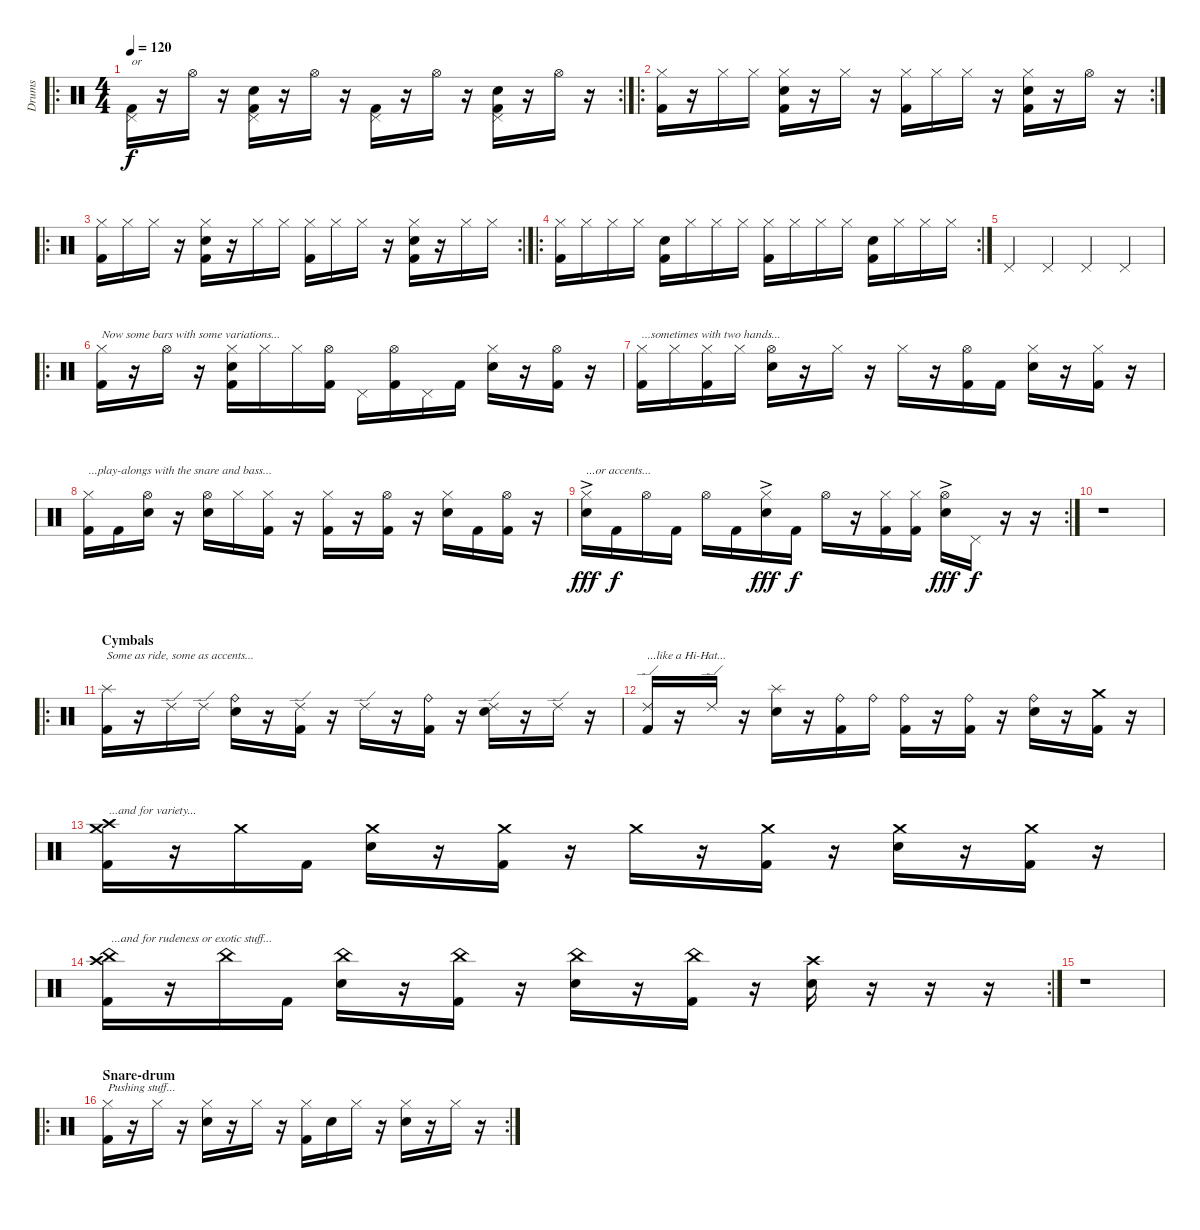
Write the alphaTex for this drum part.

\track ("Drums" "Drums") {instrument percussion}
\staff {score}
\articulation defaults
\ro
\rc 2
\ts (4 4)
\tempo 120
\clef neutral
\ks c
("Pedal Hi-Hat (hit)" "Kick (hit) 2").16{txt "or" lyrics (0 "") lyrics (1 "") lyrics (2 "") lyrics (3 "") lyrics (4 "") dy f} r.16 "Hi-Hat (open)".16{lyrics (0 "") lyrics (1 "") lyrics (2 "") lyrics (3 "") lyrics (4 "")} r.16 ("Pedal Hi-Hat (hit)" "Electric Snare (hit)" "Kick (hit) 2").16{lyrics (0 "") lyrics (1 "") lyrics (2 "") lyrics (3 "") lyrics (4 "")} r.16 "Hi-Hat (open)".16{lyrics (0 "") lyrics (1 "") lyrics (2 "") lyrics (3 "") lyrics (4 "")} r.16 ("Pedal Hi-Hat (hit)" "Kick (hit) 2").16{lyrics (0 "") lyrics (1 "") lyrics (2 "") lyrics (3 "") lyrics (4 "")} r.16 "Hi-Hat (open)".16{lyrics (0 "") lyrics (1 "") lyrics (2 "") lyrics (3 "") lyrics (4 "")} r.16 ("Pedal Hi-Hat (hit)" "Electric Snare (hit)" "Kick (hit) 2").16{lyrics (0 "") lyrics (1 "") lyrics (2 "") lyrics (3 "") lyrics (4 "")} r.16 "Hi-Hat (open)".16{lyrics (0 "") lyrics (1 "") lyrics (2 "") lyrics (3 "") lyrics (4 "")} r.16 |
\ro
\rc 2
("Hi-Hat (closed)" "Kick (hit) 2").16{lyrics (0 "") lyrics (1 "") lyrics (2 "") lyrics (3 "") lyrics (4 "")} r.16 "Hi-Hat (closed)".16{lyrics (0 "") lyrics (1 "") lyrics (2 "") lyrics (3 "") lyrics (4 "")} "Hi-Hat (closed)".16{lyrics (0 "") lyrics (1 "") lyrics (2 "") lyrics (3 "") lyrics (4 "")} ("Hi-Hat (closed)" "Electric Snare (hit)" "Kick (hit) 2").16{lyrics (0 "") lyrics (1 "") lyrics (2 "") lyrics (3 "") lyrics (4 "")} r.16 "Hi-Hat (closed)".16{lyrics (0 "") lyrics (1 "") lyrics (2 "") lyrics (3 "") lyrics (4 "")} r.16 ("Hi-Hat (closed)" "Kick (hit) 2").16{lyrics (0 "") lyrics (1 "") lyrics (2 "") lyrics (3 "") lyrics (4 "")} "Hi-Hat (closed)".16{lyrics (0 "") lyrics (1 "") lyrics (2 "") lyrics (3 "") lyrics (4 "")} "Hi-Hat (closed)".16{lyrics (0 "") lyrics (1 "") lyrics (2 "") lyrics (3 "") lyrics (4 "")} r.16 ("Hi-Hat (closed)" "Electric Snare (hit)" "Kick (hit) 2").16{lyrics (0 "") lyrics (1 "") lyrics (2 "") lyrics (3 "") lyrics (4 "")} r.16 "Hi-Hat (open)".16{lyrics (0 "") lyrics (1 "") lyrics (2 "") lyrics (3 "") lyrics (4 "")} r.16 |
\ro
\rc 2
("Hi-Hat (closed)" "Kick (hit) 2").16{lyrics (0 "") lyrics (1 "") lyrics (2 "") lyrics (3 "") lyrics (4 "")} "Hi-Hat (closed)".16{lyrics (0 "") lyrics (1 "") lyrics (2 "") lyrics (3 "") lyrics (4 "")} "Hi-Hat (closed)".16{lyrics (0 "") lyrics (1 "") lyrics (2 "") lyrics (3 "") lyrics (4 "")} r.16 ("Hi-Hat (closed)" "Electric Snare (hit)" "Kick (hit) 2").16{lyrics (0 "") lyrics (1 "") lyrics (2 "") lyrics (3 "") lyrics (4 "")} r.16 "Hi-Hat (closed)".16{lyrics (0 "") lyrics (1 "") lyrics (2 "") lyrics (3 "") lyrics (4 "")} "Hi-Hat (closed)".16{lyrics (0 "") lyrics (1 "") lyrics (2 "") lyrics (3 "") lyrics (4 "")} ("Hi-Hat (closed)" "Kick (hit) 2").16{lyrics (0 "") lyrics (1 "") lyrics (2 "") lyrics (3 "") lyrics (4 "")} "Hi-Hat (closed)".16{lyrics (0 "") lyrics (1 "") lyrics (2 "") lyrics (3 "") lyrics (4 "")} "Hi-Hat (closed)".16{lyrics (0 "") lyrics (1 "") lyrics (2 "") lyrics (3 "") lyrics (4 "")} r.16 ("Hi-Hat (closed)" "Electric Snare (hit)" "Kick (hit) 2").16{lyrics (0 "") lyrics (1 "") lyrics (2 "") lyrics (3 "") lyrics (4 "")} r.16 "Hi-Hat (closed)".16{lyrics (0 "") lyrics (1 "") lyrics (2 "") lyrics (3 "") lyrics (4 "")} "Hi-Hat (closed)".16{lyrics (0 "") lyrics (1 "") lyrics (2 "") lyrics (3 "") lyrics (4 "")} |
\ro
\rc 2
("Hi-Hat (closed)" "Kick (hit) 2").16{lyrics (0 "") lyrics (1 "") lyrics (2 "") lyrics (3 "") lyrics (4 "")} "Hi-Hat (closed)".16{lyrics (0 "") lyrics (1 "") lyrics (2 "") lyrics (3 "") lyrics (4 "")} "Hi-Hat (closed)".16{lyrics (0 "") lyrics (1 "") lyrics (2 "") lyrics (3 "") lyrics (4 "")} "Hi-Hat (closed)".16{lyrics (0 "") lyrics (1 "") lyrics (2 "") lyrics (3 "") lyrics (4 "")} ("Electric Snare (hit)" "Kick (hit) 2").16{lyrics (0 "") lyrics (1 "") lyrics (2 "") lyrics (3 "") lyrics (4 "")} "Hi-Hat (closed)".16{lyrics (0 "") lyrics (1 "") lyrics (2 "") lyrics (3 "") lyrics (4 "")} "Hi-Hat (closed)".16{lyrics (0 "") lyrics (1 "") lyrics (2 "") lyrics (3 "") lyrics (4 "")} "Hi-Hat (closed)".16{lyrics (0 "") lyrics (1 "") lyrics (2 "") lyrics (3 "") lyrics (4 "")} ("Hi-Hat (closed)" "Kick (hit) 2").16{lyrics (0 "") lyrics (1 "") lyrics (2 "") lyrics (3 "") lyrics (4 "")} "Hi-Hat (closed)".16{lyrics (0 "") lyrics (1 "") lyrics (2 "") lyrics (3 "") lyrics (4 "")} "Hi-Hat (closed)".16{lyrics (0 "") lyrics (1 "") lyrics (2 "") lyrics (3 "") lyrics (4 "")} "Hi-Hat (closed)".16{lyrics (0 "") lyrics (1 "") lyrics (2 "") lyrics (3 "") lyrics (4 "")} ("Electric Snare (hit)" "Kick (hit) 2").16{lyrics (0 "") lyrics (1 "") lyrics (2 "") lyrics (3 "") lyrics (4 "")} "Hi-Hat (closed)".16{lyrics (0 "") lyrics (1 "") lyrics (2 "") lyrics (3 "") lyrics (4 "")} "Hi-Hat (closed)".16{lyrics (0 "") lyrics (1 "") lyrics (2 "") lyrics (3 "") lyrics (4 "")} "Hi-Hat (closed)".16{lyrics (0 "") lyrics (1 "") lyrics (2 "") lyrics (3 "") lyrics (4 "")} |
"Pedal Hi-Hat (hit)".4{lyrics (0 "") lyrics (1 "") lyrics (2 "") lyrics (3 "") lyrics (4 "")} "Pedal Hi-Hat (hit)".4{lyrics (0 "") lyrics (1 "") lyrics (2 "") lyrics (3 "") lyrics (4 "")} "Pedal Hi-Hat (hit)".4{lyrics (0 "") lyrics (1 "") lyrics (2 "") lyrics (3 "") lyrics (4 "")} "Pedal Hi-Hat (hit)".4{lyrics (0 "") lyrics (1 "") lyrics (2 "") lyrics (3 "") lyrics (4 "")} |
\ro
\section ("" "")
("Hi-Hat (closed)" "Kick (hit) 2").16{txt "Now some bars with some variations..." lyrics (0 "") lyrics (1 "") lyrics (2 "") lyrics (3 "") lyrics (4 "")} r.16 "Hi-Hat (open)".16{lyrics (0 "") lyrics (1 "") lyrics (2 "") lyrics (3 "") lyrics (4 "")} r.16 ("Hi-Hat (closed)" "Electric Snare (hit)" "Kick (hit) 2").16{lyrics (0 "") lyrics (1 "") lyrics (2 "") lyrics (3 "") lyrics (4 "")} "Hi-Hat (closed)".16{lyrics (0 "") lyrics (1 "") lyrics (2 "") lyrics (3 "") lyrics (4 "")} "Hi-Hat (closed)".16{lyrics (0 "") lyrics (1 "") lyrics (2 "") lyrics (3 "") lyrics (4 "")} ("Hi-Hat (open)" "Kick (hit) 2").16{lyrics (0 "") lyrics (1 "") lyrics (2 "") lyrics (3 "") lyrics (4 "")} "Pedal Hi-Hat (hit)".16{lyrics (0 "") lyrics (1 "") lyrics (2 "") lyrics (3 "") lyrics (4 "")} ("Hi-Hat (open)" "Kick (hit) 2").16{lyrics (0 "") lyrics (1 "") lyrics (2 "") lyrics (3 "") lyrics (4 "")} "Pedal Hi-Hat (hit)".16{lyrics (0 "") lyrics (1 "") lyrics (2 "") lyrics (3 "") lyrics (4 "")} "Kick (hit) 2".16{lyrics (0 "") lyrics (1 "") lyrics (2 "") lyrics (3 "") lyrics (4 "")} ("Hi-Hat (closed)" "Electric Snare (hit)").16{lyrics (0 "") lyrics (1 "") lyrics (2 "") lyrics (3 "") lyrics (4 "")} r.16 ("Hi-Hat (open)" "Kick (hit) 2").16{lyrics (0 "") lyrics (1 "") lyrics (2 "") lyrics (3 "") lyrics (4 "")} r.16 |
("Hi-Hat (closed)" "Kick (hit) 2").16{txt "...sometimes with two hands..." lyrics (0 "") lyrics (1 "") lyrics (2 "") lyrics (3 "") lyrics (4 "")} "Hi-Hat (closed)".16{lyrics (0 "") lyrics (1 "") lyrics (2 "") lyrics (3 "") lyrics (4 "")} ("Hi-Hat (closed)" "Kick (hit) 2").16{lyrics (0 "") lyrics (1 "") lyrics (2 "") lyrics (3 "") lyrics (4 "")} "Hi-Hat (closed)".16{lyrics (0 "") lyrics (1 "") lyrics (2 "") lyrics (3 "") lyrics (4 "")} ("Hi-Hat (open)" "Electric Snare (hit)").16{lyrics (0 "") lyrics (1 "") lyrics (2 "") lyrics (3 "") lyrics (4 "")} r.16 "Hi-Hat (closed)".16{lyrics (0 "") lyrics (1 "") lyrics (2 "") lyrics (3 "") lyrics (4 "")} r.16 "Hi-Hat (closed)".16{lyrics (0 "") lyrics (1 "") lyrics (2 "") lyrics (3 "") lyrics (4 "")} r.16 ("Hi-Hat (open)" "Kick (hit) 2").16{lyrics (0 "") lyrics (1 "") lyrics (2 "") lyrics (3 "") lyrics (4 "")} "Kick (hit) 2".16{lyrics (0 "") lyrics (1 "") lyrics (2 "") lyrics (3 "") lyrics (4 "")} ("Hi-Hat (closed)" "Electric Snare (hit)").16{lyrics (0 "") lyrics (1 "") lyrics (2 "") lyrics (3 "") lyrics (4 "")} r.16 ("Hi-Hat (closed)" "Kick (hit) 2").16{lyrics (0 "") lyrics (1 "") lyrics (2 "") lyrics (3 "") lyrics (4 "")} r.16 |
("Hi-Hat (closed)" "Kick (hit) 2").16{txt "...play-alongs with the snare and bass..." lyrics (0 "") lyrics (1 "") lyrics (2 "") lyrics (3 "") lyrics (4 "")} "Kick (hit) 2".16{lyrics (0 "") lyrics (1 "") lyrics (2 "") lyrics (3 "") lyrics (4 "")} ("Hi-Hat (open)" "Electric Snare (hit)").16{lyrics (0 "") lyrics (1 "") lyrics (2 "") lyrics (3 "") lyrics (4 "")} r.16 ("Hi-Hat (open)" "Electric Snare (hit)").16{lyrics (0 "") lyrics (1 "") lyrics (2 "") lyrics (3 "") lyrics (4 "")} "Hi-Hat (closed)".16{lyrics (0 "") lyrics (1 "") lyrics (2 "") lyrics (3 "") lyrics (4 "")} ("Hi-Hat (closed)" "Kick (hit) 2").16{lyrics (0 "") lyrics (1 "") lyrics (2 "") lyrics (3 "") lyrics (4 "")} r.16 ("Hi-Hat (closed)" "Kick (hit) 2").16{lyrics (0 "") lyrics (1 "") lyrics (2 "") lyrics (3 "") lyrics (4 "")} r.16 ("Hi-Hat (open)" "Kick (hit) 2").16{lyrics (0 "") lyrics (1 "") lyrics (2 "") lyrics (3 "") lyrics (4 "")} r.16 ("Hi-Hat (closed)" "Electric Snare (hit)").16{lyrics (0 "") lyrics (1 "") lyrics (2 "") lyrics (3 "") lyrics (4 "")} "Kick (hit) 2".16{lyrics (0 "") lyrics (1 "") lyrics (2 "") lyrics (3 "") lyrics (4 "")} ("Hi-Hat (open)" "Kick (hit) 2").16{lyrics (0 "") lyrics (1 "") lyrics (2 "") lyrics (3 "") lyrics (4 "")} r.16 |
\rc 2
("Hi-Hat (closed)"{ac} "Electric Snare (hit)").16{txt "...or accents..." lyrics (0 "") lyrics (1 "") lyrics (2 "") lyrics (3 "") lyrics (4 "") dy fff} "Kick (hit) 2".16{lyrics (0 "") lyrics (1 "") lyrics (2 "") lyrics (3 "") lyrics (4 "") dy f} "Hi-Hat (open)".16{lyrics (0 "") lyrics (1 "") lyrics (2 "") lyrics (3 "") lyrics (4 "")} "Kick (hit) 2".16{lyrics (0 "") lyrics (1 "") lyrics (2 "") lyrics (3 "") lyrics (4 "")} "Hi-Hat (open)".16{lyrics (0 "") lyrics (1 "") lyrics (2 "") lyrics (3 "") lyrics (4 "")} "Kick (hit) 2".16{lyrics (0 "") lyrics (1 "") lyrics (2 "") lyrics (3 "") lyrics (4 "")} ("Hi-Hat (closed)"{ac} "Electric Snare (hit)").16{lyrics (0 "") lyrics (1 "") lyrics (2 "") lyrics (3 "") lyrics (4 "") dy fff} "Kick (hit) 2".16{lyrics (0 "") lyrics (1 "") lyrics (2 "") lyrics (3 "") lyrics (4 "") dy f} "Hi-Hat (open)".16{lyrics (0 "") lyrics (1 "") lyrics (2 "") lyrics (3 "") lyrics (4 "")} r.16 ("Hi-Hat (closed)" "Kick (hit) 2").16{lyrics (0 "") lyrics (1 "") lyrics (2 "") lyrics (3 "") lyrics (4 "")} ("Hi-Hat (closed)" "Kick (hit) 2").16{lyrics (0 "") lyrics (1 "") lyrics (2 "") lyrics (3 "") lyrics (4 "")} ("Hi-Hat (open)"{ac} "Electric Snare (hit)").16{lyrics (0 "") lyrics (1 "") lyrics (2 "") lyrics (3 "") lyrics (4 "") dy fff} "Pedal Hi-Hat (hit)".16{lyrics (0 "") lyrics (1 "") lyrics (2 "") lyrics (3 "") lyrics (4 "") dy f} r.16 r.16 |
r.1 |
\ro
\section ("" "Cymbals")
("Splash (hit)" "Kick (hit) 2").16{txt "Some as ride, some as accents..." lyrics (0 "") lyrics (1 "") lyrics (2 "") lyrics (3 "") lyrics (4 "")} r.16 "Ride (edge) 2".16{lyrics (0 "") lyrics (1 "") lyrics (2 "") lyrics (3 "") lyrics (4 "")} "Ride (edge) 2".16{lyrics (0 "") lyrics (1 "") lyrics (2 "") lyrics (3 "") lyrics (4 "")} ("Ride (bell)" "Electric Snare (hit)").16{lyrics (0 "") lyrics (1 "") lyrics (2 "") lyrics (3 "") lyrics (4 "")} r.16 ("Ride (edge) 2" "Kick (hit) 2").16{lyrics (0 "") lyrics (1 "") lyrics (2 "") lyrics (3 "") lyrics (4 "")} r.16 "Ride (edge) 2".16{lyrics (0 "") lyrics (1 "") lyrics (2 "") lyrics (3 "") lyrics (4 "")} r.16 ("Ride (bell)" "Kick (hit) 2").16{lyrics (0 "") lyrics (1 "") lyrics (2 "") lyrics (3 "") lyrics (4 "")} r.16 ("Ride (edge) 2" "Electric Snare (hit)").16{lyrics (0 "") lyrics (1 "") lyrics (2 "") lyrics (3 "") lyrics (4 "")} r.16 "Ride (edge) 2".16{lyrics (0 "") lyrics (1 "") lyrics (2 "") lyrics (3 "") lyrics (4 "")} r.16 |
("Ride (edge) 2" "Kick (hit) 2").16{txt "...like a Hi-Hat..." lyrics (0 "") lyrics (1 "") lyrics (2 "") lyrics (3 "") lyrics (4 "")} r.16 "Ride (edge) 2".16{lyrics (0 "") lyrics (1 "") lyrics (2 "") lyrics (3 "") lyrics (4 "")} r.16 ("Splash (hit)" "Electric Snare (hit)").16{lyrics (0 "") lyrics (1 "") lyrics (2 "") lyrics (3 "") lyrics (4 "")} r.16 ("Ride (bell)" "Kick (hit) 2").16{lyrics (0 "") lyrics (1 "") lyrics (2 "") lyrics (3 "") lyrics (4 "")} "Ride (bell)".16{lyrics (0 "") lyrics (1 "") lyrics (2 "") lyrics (3 "") lyrics (4 "")} ("Ride (bell)" "Kick (hit) 2").16{lyrics (0 "") lyrics (1 "") lyrics (2 "") lyrics (3 "") lyrics (4 "")} r.16 ("Ride (bell)" "Kick (hit) 2").16{lyrics (0 "") lyrics (1 "") lyrics (2 "") lyrics (3 "") lyrics (4 "")} r.16 ("Ride (bell)" "Electric Snare (hit)").16{lyrics (0 "") lyrics (1 "") lyrics (2 "") lyrics (3 "") lyrics (4 "")} r.16 ("Crash medium (hit)" "Kick (hit) 2").16{lyrics (0 "") lyrics (1 "") lyrics (2 "") lyrics (3 "") lyrics (4 "")} r.16 |
("Crash medium (hit)" "Crash high (hit)" "Kick (hit) 2").16{txt "...and for variety..." lyrics (0 "") lyrics (1 "") lyrics (2 "") lyrics (3 "") lyrics (4 "")} r.16 "Crash medium (hit)".16{lyrics (0 "") lyrics (1 "") lyrics (2 "") lyrics (3 "") lyrics (4 "")} "Kick (hit) 2".16{lyrics (0 "") lyrics (1 "") lyrics (2 "") lyrics (3 "") lyrics (4 "")} ("Crash medium (hit)" "Electric Snare (hit)").16{lyrics (0 "") lyrics (1 "") lyrics (2 "") lyrics (3 "") lyrics (4 "")} r.16 ("Crash medium (hit)" "Kick (hit) 2").16{lyrics (0 "") lyrics (1 "") lyrics (2 "") lyrics (3 "") lyrics (4 "")} r.16 "Crash medium (hit)".16{lyrics (0 "") lyrics (1 "") lyrics (2 "") lyrics (3 "") lyrics (4 "")} r.16 ("Crash medium (hit)" "Kick (hit) 2").16{lyrics (0 "") lyrics (1 "") lyrics (2 "") lyrics (3 "") lyrics (4 "")} r.16 ("Crash medium (hit)" "Electric Snare (hit)").16{lyrics (0 "") lyrics (1 "") lyrics (2 "") lyrics (3 "") lyrics (4 "")} r.16 ("Crash medium (hit)" "Kick (hit) 2").16{lyrics (0 "") lyrics (1 "") lyrics (2 "") lyrics (3 "") lyrics (4 "")} r.16 |
\rc 2
("China (hit)" "Crash high (hit)" "Kick (hit) 2").16{txt "...and for rudeness or exotic stuff..." lyrics (0 "") lyrics (1 "") lyrics (2 "") lyrics (3 "") lyrics (4 "")} r.16 "China (hit)".16{lyrics (0 "") lyrics (1 "") lyrics (2 "") lyrics (3 "") lyrics (4 "")} "Kick (hit) 2".16{lyrics (0 "") lyrics (1 "") lyrics (2 "") lyrics (3 "") lyrics (4 "")} ("China (hit)" "Electric Snare (hit)").16{lyrics (0 "") lyrics (1 "") lyrics (2 "") lyrics (3 "") lyrics (4 "")} r.16 ("China (hit)" "Kick (hit) 2").16{lyrics (0 "") lyrics (1 "") lyrics (2 "") lyrics (3 "") lyrics (4 "")} r.16 ("China (hit)" "Electric Snare (hit)").16{lyrics (0 "") lyrics (1 "") lyrics (2 "") lyrics (3 "") lyrics (4 "")} r.16 ("China (hit)" "Kick (hit) 2").16{lyrics (0 "") lyrics (1 "") lyrics (2 "") lyrics (3 "") lyrics (4 "")} r.16 ("Crash high (hit)" "Electric Snare (hit)").16{lyrics (0 "") lyrics (1 "") lyrics (2 "") lyrics (3 "") lyrics (4 "")} r.16 r.16 r.16 |
r.1 |
\ro
\rc 2
\section ("" "Snare-drum")
("Hi-Hat (closed)" "Kick (hit) 2").16{txt "Pushing stuff..." lyrics (0 "") lyrics (1 "") lyrics (2 "") lyrics (3 "") lyrics (4 "")} r.16 "Hi-Hat (closed)".16{lyrics (0 "") lyrics (1 "") lyrics (2 "") lyrics (3 "") lyrics (4 "")} r.16 ("Hi-Hat (closed)" "Electric Snare (hit)").16{lyrics (0 "") lyrics (1 "") lyrics (2 "") lyrics (3 "") lyrics (4 "")} r.16 "Hi-Hat (closed)".16{lyrics (0 "") lyrics (1 "") lyrics (2 "") lyrics (3 "") lyrics (4 "")} r.16 ("Hi-Hat (closed)" "Kick (hit) 2").16{lyrics (0 "") lyrics (1 "") lyrics (2 "") lyrics (3 "") lyrics (4 "")} "Electric Snare (hit)".16{lyrics (0 "") lyrics (1 "") lyrics (2 "") lyrics (3 "") lyrics (4 "")} "Hi-Hat (closed)".16{lyrics (0 "") lyrics (1 "") lyrics (2 "") lyrics (3 "") lyrics (4 "")} r.16 ("Hi-Hat (closed)" "Electric Snare (hit)").16{lyrics (0 "") lyrics (1 "") lyrics (2 "") lyrics (3 "") lyrics (4 "")} r.16 "Hi-Hat (closed)".16{lyrics (0 "") lyrics (1 "") lyrics (2 "") lyrics (3 "") lyrics (4 "")} r.16
